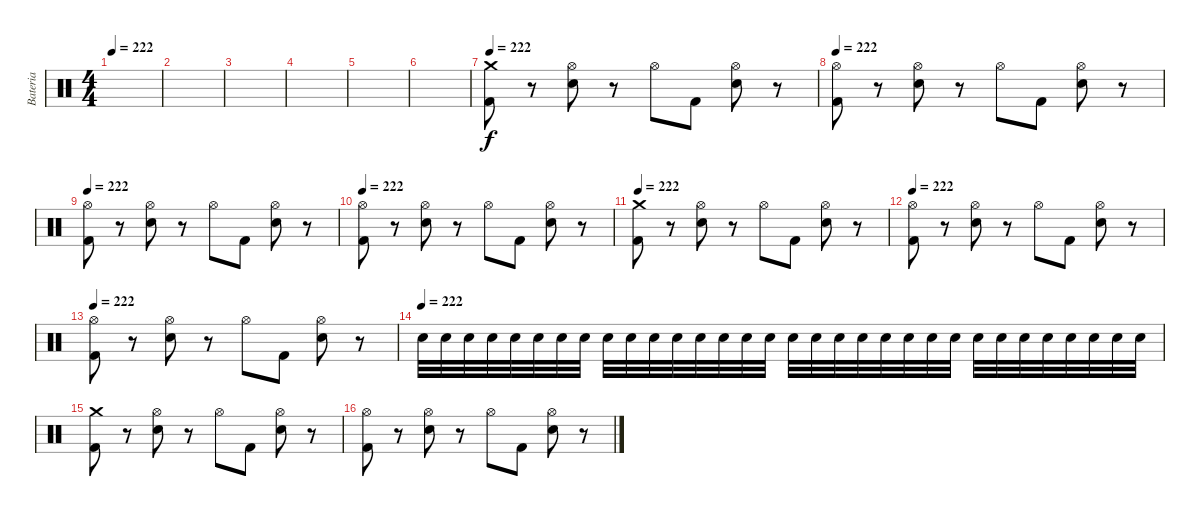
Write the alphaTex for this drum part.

\track ("Bateria" "Bateria") {instrument percussion}
\staff {score}
\articulation defaults
\ts (4 4)
\tempo 222
\clef neutral
\ks c
|
|
|
|
|
|
\tempo 222
("Crash medium (hit)" "Kick (hit) 2").8 r.8 ("Hi-Hat (open)" "Electric Snare (hit)").8 r.8 "Hi-Hat (open)".8 "Kick (hit) 2".8 ("Hi-Hat (open)" "Electric Snare (hit)").8 r.8 |
\tempo 222
("Hi-Hat (open)" "Kick (hit) 2").8 r.8 ("Hi-Hat (open)" "Electric Snare (hit)").8 r.8 "Hi-Hat (open)".8 "Kick (hit) 2".8 ("Hi-Hat (open)" "Electric Snare (hit)").8 r.8 |
\tempo 222
("Hi-Hat (open)" "Kick (hit) 2").8 r.8 ("Hi-Hat (open)" "Electric Snare (hit)").8 r.8 "Hi-Hat (open)".8 "Kick (hit) 2".8 ("Hi-Hat (open)" "Electric Snare (hit)").8 r.8 |
\tempo 222
("Hi-Hat (open)" "Kick (hit) 2").8 r.8 ("Hi-Hat (open)" "Electric Snare (hit)").8 r.8 "Hi-Hat (open)".8 "Kick (hit) 2".8 ("Hi-Hat (open)" "Electric Snare (hit)").8 r.8 |
\tempo 222
("Crash medium (hit)" "Kick (hit) 2").8 r.8 ("Hi-Hat (open)" "Electric Snare (hit)").8 r.8 "Hi-Hat (open)".8 "Kick (hit) 2".8 ("Hi-Hat (open)" "Electric Snare (hit)").8 r.8 |
\tempo 222
("Hi-Hat (open)" "Kick (hit) 2").8 r.8 ("Hi-Hat (open)" "Electric Snare (hit)").8 r.8 "Hi-Hat (open)".8 "Kick (hit) 2".8 ("Hi-Hat (open)" "Electric Snare (hit)").8 r.8 |
\tempo 222
("Hi-Hat (open)" "Kick (hit) 2").8 r.8 ("Hi-Hat (open)" "Electric Snare (hit)").8 r.8 "Hi-Hat (open)".8 "Kick (hit) 2".8 ("Hi-Hat (open)" "Electric Snare (hit)").8 r.8 |
\tempo (222)
"Electric Snare (hit)".32{volume 10} "Electric Snare (hit)".32 "Electric Snare (hit)".32 "Electric Snare (hit)".32 "Electric Snare (hit)".32 "Electric Snare (hit)".32 "Electric Snare (hit)".32 "Electric Snare (hit)".32 "Electric Snare (hit)".32 "Electric Snare (hit)".32 "Electric Snare (hit)".32 "Electric Snare (hit)".32 "Electric Snare (hit)".32 "Electric Snare (hit)".32 "Electric Snare (hit)".32 "Electric Snare (hit)".32 "Electric Snare (hit)".32 "Electric Snare (hit)".32 "Electric Snare (hit)".32 "Electric Snare (hit)".32 "Electric Snare (hit)".32 "Electric Snare (hit)".32 "Electric Snare (hit)".32 "Electric Snare (hit)".32 "Electric Snare (hit)".32 "Electric Snare (hit)".32 "Electric Snare (hit)".32 "Electric Snare (hit)".32 "Electric Snare (hit)".32 "Electric Snare (hit)".32 "Electric Snare (hit)".32 "Electric Snare (hit)".32 |
("Crash medium (hit)" "Kick (hit) 2").8{volume 13} r.8 ("Hi-Hat (open)" "Electric Snare (hit)").8 r.8 "Hi-Hat (open)".8 "Kick (hit) 2".8 ("Hi-Hat (open)" "Electric Snare (hit)").8 r.8 |
("Hi-Hat (open)" "Kick (hit) 2").8 r.8 ("Hi-Hat (open)" "Electric Snare (hit)").8 r.8 "Hi-Hat (open)".8 "Kick (hit) 2".8 ("Hi-Hat (open)" "Electric Snare (hit)").8 r.8
